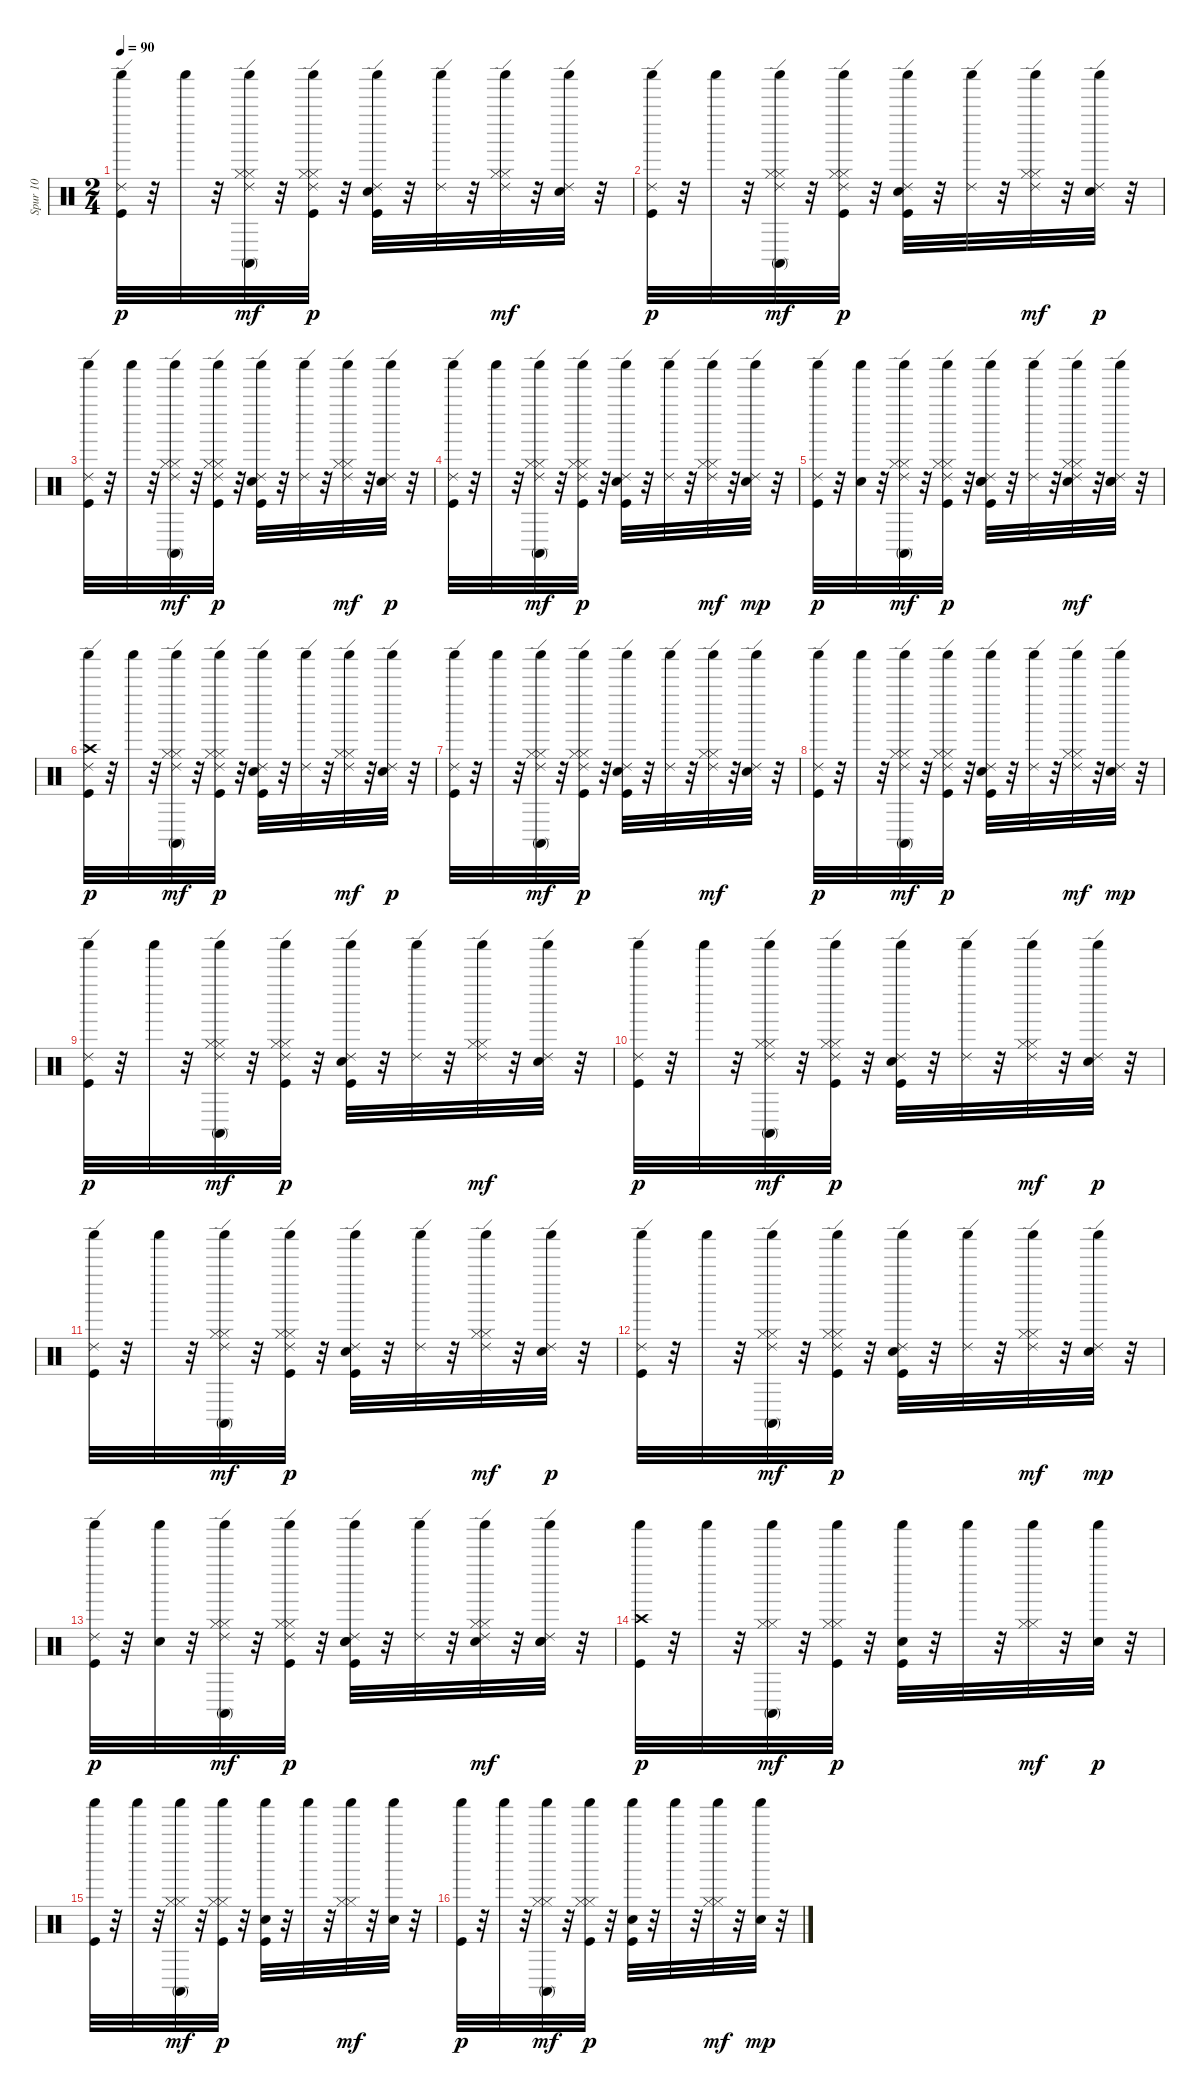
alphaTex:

\track ("Spur 10" "Spur 10") {instrument percussion}
\staff {score}
\articulation defaults
\ts (2 4)
\tempo 90
\clef neutral
\ks c
("Ride (edge) 2" "Shaker (hit)" "Kick (hit)").32{dy p} r.32 "Shaker (hit)".32 r.32 ("Ride (edge) 2" "Hi-Hat (closed)" "Shaker (hit)" "Conga high (mute)" "Hi-Hat (closed)").32{dy mf} r.32 ("Ride (edge) 2" "Shaker (hit)" "Kick (hit)" "Hi-Hat (closed)" "Hi-Hat (closed)").32{dy p} r.32 ("Ride (edge) 2" "Shaker (hit)" "Snare (hit) 2" "Kick (hit)").32 r.32 ("Ride (edge) 2" "Shaker (hit)").32 r.32 ("Ride (edge) 2" "Hi-Hat (closed)" "Shaker (hit)" "Hi-Hat (closed)").32{dy mf} r.32 ("Ride (edge) 2" "Shaker (hit)" "Electric Snare (hit)").32 r.32 |
("Ride (edge) 2" "Shaker (hit)" "Kick (hit)").32{dy p} r.32 "Shaker (hit)".32 r.32 ("Ride (edge) 2" "Shaker (hit)" "Hi-Hat (closed)" "Conga high (mute)" "Hi-Hat (closed)").32{dy mf} r.32 ("Ride (edge) 2" "Kick (hit)" "Shaker (hit)" "Hi-Hat (closed)" "Hi-Hat (closed)").32{dy p} r.32 ("Ride (edge) 2" "Snare (hit) 2" "Shaker (hit)" "Kick (hit)").32 r.32 ("Ride (edge) 2" "Shaker (hit)").32 r.32 ("Ride (edge) 2" "Hi-Hat (closed)" "Shaker (hit)" "Hi-Hat (closed)").32{dy mf} r.32 ("Ride (edge) 2" "Electric Snare (hit)" "Shaker (hit)").32{dy p} r.32 |
("Ride (edge) 2" "Shaker (hit)" "Kick (hit)").32 r.32 "Shaker (hit)".32 r.32 ("Ride (edge) 2" "Conga high (mute)" "Shaker (hit)" "Hi-Hat (closed)" "Hi-Hat (closed)").32{dy mf} r.32 ("Ride (edge) 2" "Kick (hit)" "Hi-Hat (closed)" "Shaker (hit)" "Hi-Hat (closed)").32{dy p} r.32 ("Ride (edge) 2" "Snare (hit) 2" "Shaker (hit)" "Kick (hit)").32 r.32 ("Ride (edge) 2" "Shaker (hit)").32 r.32 ("Ride (edge) 2" "Shaker (hit)" "Hi-Hat (closed)" "Hi-Hat (closed)").32{dy mf} r.32 ("Ride (edge) 2" "Electric Snare (hit)" "Shaker (hit)").32{dy p} r.32 |
("Ride (edge) 2" "Shaker (hit)" "Kick (hit)").32 r.32 "Shaker (hit)".32 r.32 ("Ride (edge) 2" "Shaker (hit)" "Conga high (mute)" "Hi-Hat (closed)" "Hi-Hat (closed)").32{dy mf} r.32 ("Ride (edge) 2" "Kick (hit)" "Hi-Hat (closed)" "Shaker (hit)" "Hi-Hat (closed)").32{dy p} r.32 ("Ride (edge) 2" "Shaker (hit)" "Snare (hit) 2" "Kick (hit)").32 r.32 ("Ride (edge) 2" "Shaker (hit)").32 r.32 ("Ride (edge) 2" "Hi-Hat (closed)" "Shaker (hit)" "Hi-Hat (closed)").32{dy mf} r.32 ("Ride (edge) 2" "Shaker (hit)" "Electric Snare (hit)").32{dy mp} r.32 |
("Ride (edge) 2" "Shaker (hit)" "Kick (hit)").32{dy p} r.32 ("Shaker (hit)" "Electric Snare (hit)").32 r.32 ("Ride (edge) 2" "Shaker (hit)" "Hi-Hat (closed)" "Conga high (mute)" "Hi-Hat (closed)").32{dy mf} r.32 ("Ride (edge) 2" "Kick (hit)" "Hi-Hat (closed)" "Shaker (hit)" "Hi-Hat (closed)").32{dy p} r.32 ("Ride (edge) 2" "Snare (hit) 2" "Shaker (hit)" "Kick (hit)" "Electric Snare (hit)").32 r.32 ("Ride (edge) 2" "Shaker (hit)").32 r.32 ("Ride (edge) 2" "Shaker (hit)" "Hi-Hat (closed)" "Snare (hit) 2" "Hi-Hat (closed)").32{dy mf} r.32 ("Ride (edge) 2" "Snare (hit) 2" "Shaker (hit)" "Electric Snare (hit)").32 r.32 |
("Ride (edge) 2" "Shaker (hit)" "Kick (hit)" "Crash high (hit)").32{dy p} r.32 "Shaker (hit)".32 r.32 ("Ride (edge) 2" "Shaker (hit)" "Hi-Hat (closed)" "Conga high (mute)" "Hi-Hat (closed)").32{dy mf} r.32 ("Ride (edge) 2" "Hi-Hat (closed)" "Shaker (hit)" "Kick (hit)" "Hi-Hat (closed)").32{dy p} r.32 ("Ride (edge) 2" "Snare (hit) 2" "Shaker (hit)" "Kick (hit)").32 r.32 ("Ride (edge) 2" "Shaker (hit)").32 r.32 ("Ride (edge) 2" "Shaker (hit)" "Hi-Hat (closed)" "Hi-Hat (closed)").32{dy mf} r.32 ("Ride (edge) 2" "Electric Snare (hit)" "Shaker (hit)").32{dy p} r.32 |
("Ride (edge) 2" "Shaker (hit)" "Kick (hit)").32 r.32 "Shaker (hit)".32 r.32 ("Ride (edge) 2" "Shaker (hit)" "Hi-Hat (closed)" "Conga high (mute)" "Hi-Hat (closed)").32{dy mf} r.32 ("Ride (edge) 2" "Kick (hit)" "Hi-Hat (closed)" "Shaker (hit)" "Hi-Hat (closed)").32{dy p} r.32 ("Ride (edge) 2" "Shaker (hit)" "Snare (hit) 2" "Kick (hit)").32 r.32 ("Ride (edge) 2" "Shaker (hit)").32 r.32 ("Ride (edge) 2" "Hi-Hat (closed)" "Shaker (hit)" "Hi-Hat (closed)").32{dy mf} r.32 ("Ride (edge) 2" "Shaker (hit)" "Electric Snare (hit)").32 r.32 |
("Ride (edge) 2" "Shaker (hit)" "Kick (hit)").32{dy p} r.32 "Shaker (hit)".32 r.32 ("Ride (edge) 2" "Conga high (mute)" "Shaker (hit)" "Hi-Hat (closed)" "Hi-Hat (closed)").32{dy mf} r.32 ("Ride (edge) 2" "Shaker (hit)" "Kick (hit)" "Hi-Hat (closed)" "Hi-Hat (closed)").32{dy p} r.32 ("Ride (edge) 2" "Snare (hit) 2" "Shaker (hit)" "Kick (hit)").32 r.32 ("Ride (edge) 2" "Shaker (hit)").32 r.32 ("Ride (edge) 2" "Hi-Hat (closed)" "Shaker (hit)" "Hi-Hat (closed)").32{dy mf} r.32 ("Ride (edge) 2" "Shaker (hit)" "Electric Snare (hit)").32{dy mp} r.32 |
("Ride (edge) 2" "Shaker (hit)" "Kick (hit)").32{dy p} r.32 "Shaker (hit)".32 r.32 ("Ride (edge) 2" "Hi-Hat (closed)" "Shaker (hit)" "Conga high (mute)" "Hi-Hat (closed)").32{dy mf} r.32 ("Ride (edge) 2" "Shaker (hit)" "Kick (hit)" "Hi-Hat (closed)" "Hi-Hat (closed)").32{dy p} r.32 ("Ride (edge) 2" "Shaker (hit)" "Snare (hit) 2" "Kick (hit)").32 r.32 ("Ride (edge) 2" "Shaker (hit)").32 r.32 ("Ride (edge) 2" "Hi-Hat (closed)" "Shaker (hit)" "Hi-Hat (closed)").32{dy mf} r.32 ("Ride (edge) 2" "Shaker (hit)" "Electric Snare (hit)").32 r.32 |
("Ride (edge) 2" "Shaker (hit)" "Kick (hit)").32{dy p} r.32 "Shaker (hit)".32 r.32 ("Ride (edge) 2" "Shaker (hit)" "Hi-Hat (closed)" "Conga high (mute)" "Hi-Hat (closed)").32{dy mf} r.32 ("Ride (edge) 2" "Kick (hit)" "Shaker (hit)" "Hi-Hat (closed)" "Hi-Hat (closed)").32{dy p} r.32 ("Ride (edge) 2" "Snare (hit) 2" "Shaker (hit)" "Kick (hit)").32 r.32 ("Ride (edge) 2" "Shaker (hit)").32 r.32 ("Ride (edge) 2" "Hi-Hat (closed)" "Shaker (hit)" "Hi-Hat (closed)").32{dy mf} r.32 ("Ride (edge) 2" "Electric Snare (hit)" "Shaker (hit)").32{dy p} r.32 |
("Ride (edge) 2" "Shaker (hit)" "Kick (hit)").32 r.32 "Shaker (hit)".32 r.32 ("Ride (edge) 2" "Conga high (mute)" "Shaker (hit)" "Hi-Hat (closed)" "Hi-Hat (closed)").32{dy mf} r.32 ("Ride (edge) 2" "Kick (hit)" "Hi-Hat (closed)" "Shaker (hit)" "Hi-Hat (closed)").32{dy p} r.32 ("Ride (edge) 2" "Snare (hit) 2" "Shaker (hit)" "Kick (hit)").32 r.32 ("Ride (edge) 2" "Shaker (hit)").32 r.32 ("Ride (edge) 2" "Shaker (hit)" "Hi-Hat (closed)" "Hi-Hat (closed)").32{dy mf} r.32 ("Ride (edge) 2" "Electric Snare (hit)" "Shaker (hit)").32{dy p} r.32 |
("Ride (edge) 2" "Shaker (hit)" "Kick (hit)").32 r.32 "Shaker (hit)".32 r.32 ("Ride (edge) 2" "Shaker (hit)" "Conga high (mute)" "Hi-Hat (closed)" "Hi-Hat (closed)").32{dy mf} r.32 ("Ride (edge) 2" "Kick (hit)" "Hi-Hat (closed)" "Shaker (hit)" "Hi-Hat (closed)").32{dy p} r.32 ("Ride (edge) 2" "Shaker (hit)" "Snare (hit) 2" "Kick (hit)").32 r.32 ("Ride (edge) 2" "Shaker (hit)").32 r.32 ("Ride (edge) 2" "Hi-Hat (closed)" "Shaker (hit)" "Hi-Hat (closed)").32{dy mf} r.32 ("Ride (edge) 2" "Shaker (hit)" "Electric Snare (hit)").32{dy mp} r.32 |
("Ride (edge) 2" "Shaker (hit)" "Kick (hit)").32{dy p} r.32 ("Shaker (hit)" "Snare (hit) 2").32 r.32 ("Ride (edge) 2" "Shaker (hit)" "Hi-Hat (closed)" "Conga high (mute)" "Hi-Hat (closed)").32{dy mf} r.32 ("Ride (edge) 2" "Kick (hit)" "Hi-Hat (closed)" "Shaker (hit)" "Hi-Hat (closed)").32{dy p} r.32 ("Ride (edge) 2" "Snare (hit) 2" "Shaker (hit)" "Kick (hit)" "Electric Snare (hit)").32 r.32 ("Ride (edge) 2" "Shaker (hit)").32 r.32 ("Ride (edge) 2" "Shaker (hit)" "Hi-Hat (closed)" "Snare (hit) 2" "Hi-Hat (closed)").32{dy mf} r.32 ("Ride (edge) 2" "Snare (hit) 2" "Shaker (hit)" "Electric Snare (hit)").32 r.32 |
("Shaker (hit)" "Kick (hit)" "Crash high (hit)").32{dy p} r.32 "Shaker (hit)".32 r.32 ("Shaker (hit)" "Hi-Hat (closed)" "Conga high (mute)" "Hi-Hat (closed)").32{dy mf} r.32 ("Hi-Hat (closed)" "Shaker (hit)" "Kick (hit)" "Hi-Hat (closed)").32{dy p} r.32 ("Snare (hit) 2" "Shaker (hit)" "Kick (hit)").32 r.32 "Shaker (hit)".32 r.32 ("Shaker (hit)" "Hi-Hat (closed)" "Hi-Hat (closed)").32{dy mf} r.32 ("Electric Snare (hit)" "Shaker (hit)").32{dy p} r.32 |
("Shaker (hit)" "Kick (hit)").32 r.32 "Shaker (hit)".32 r.32 ("Shaker (hit)" "Hi-Hat (closed)" "Conga high (mute)" "Hi-Hat (closed)").32{dy mf} r.32 ("Kick (hit)" "Hi-Hat (closed)" "Shaker (hit)" "Hi-Hat (closed)").32{dy p} r.32 ("Shaker (hit)" "Snare (hit) 2" "Kick (hit)").32 r.32 "Shaker (hit)".32 r.32 ("Hi-Hat (closed)" "Shaker (hit)" "Hi-Hat (closed)").32{dy mf} r.32 ("Shaker (hit)" "Electric Snare (hit)").32 r.32 |
("Shaker (hit)" "Kick (hit)").32{dy p} r.32 "Shaker (hit)".32 r.32 ("Conga high (mute)" "Shaker (hit)" "Hi-Hat (closed)" "Hi-Hat (closed)").32{dy mf} r.32 ("Shaker (hit)" "Kick (hit)" "Hi-Hat (closed)" "Hi-Hat (closed)").32{dy p} r.32 ("Snare (hit) 2" "Shaker (hit)" "Kick (hit)").32 r.32 "Shaker (hit)".32 r.32 ("Hi-Hat (closed)" "Shaker (hit)" "Hi-Hat (closed)").32{dy mf} r.32 ("Shaker (hit)" "Electric Snare (hit)").32{dy mp} r.32
